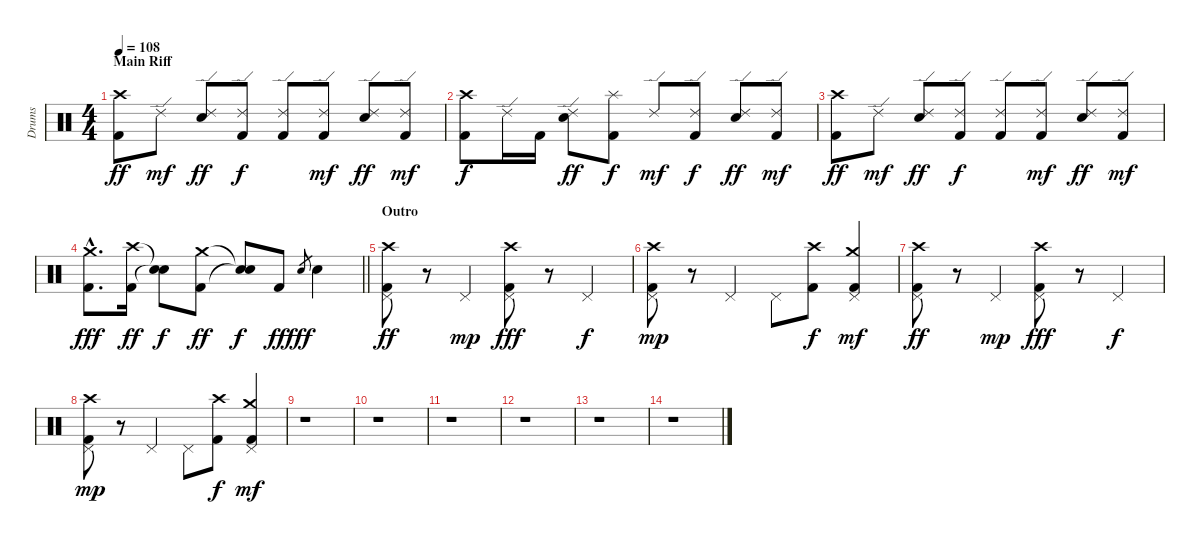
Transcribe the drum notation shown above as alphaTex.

\track ("Drums" "Drums") {instrument percussion}
\staff {score}
\articulation defaults
\ts (4 4)
\section ("" "Main Riff")
\tempo 108
\clef neutral
\ks c
("Crash high (hit)" "Kick (hit) 2").8{dy ff} "Ride (edge) 2".8{dy mf} ("Ride (edge) 2" "Electric Snare (hit)").8{dy ff} ("Ride (edge) 2" "Kick (hit) 2").8{dy f} ("Ride (edge) 2" "Kick (hit) 2").8 ("Ride (edge) 2" "Kick (hit) 2").8{dy mf} ("Ride (edge) 2" "Electric Snare (hit)").8{dy ff} ("Ride (edge) 2" "Kick (hit) 2").8{dy mf} |
("Crash high (hit)" "Kick (hit) 2").8{dy f} "Ride (edge) 2".16 "Kick (hit) 2".16 ("Ride (edge) 2" "Electric Snare (hit)").8{dy ff} ("Splash (hit)" "Kick (hit) 2").8{dy f} "Ride (edge) 2".8{dy mf} ("Ride (edge) 2" "Kick (hit) 2").8{dy f} ("Ride (edge) 2" "Electric Snare (hit)").8{dy ff} ("Ride (edge) 2" "Kick (hit) 2").8{dy mf} |
("Crash high (hit)" "Kick (hit) 2").8{dy ff} "Ride (edge) 2".8{dy mf} ("Ride (edge) 2" "Electric Snare (hit)").8{dy ff} ("Ride (edge) 2" "Kick (hit) 2").8{dy f} ("Ride (edge) 2" "Kick (hit) 2").8 ("Ride (edge) 2" "Kick (hit) 2").8{dy mf} ("Ride (edge) 2" "Electric Snare (hit)").8{dy ff} ("Ride (edge) 2" "Kick (hit) 2").8{dy mf} |
\barLineRight lightlight
("Crash medium (hit)"{hac} "Kick (hit) 2"{hac}).8{d dy fff} ("Crash high (hit)" "Kick (hit) 2").16{dy ff} ("Snare (hit)"{t} "Snare (hit)"{t}).8{dy f} ("Crash medium (hit)" "Kick (hit) 2").8{dy ff} ("Snare (hit)"{t} "Snare (hit)"{t}).8{dy f} "Kick (hit) 2".8{dy ff} "Electric Snare (hit)".8{gr dy fff} "Electric Snare (hit)".4 |
\section ("" "Outro")
("Crash high (hit)" "Pedal Hi-Hat (hit)" "Kick (hit) 2").8{dy ff} r.8{volume 0} "Pedal Hi-Hat (hit)".4{dy mp volume 15} ("Crash high (hit)" "Pedal Hi-Hat (hit)" "Kick (hit) 2").8{dy fff volume 15} r.8{volume 0} "Pedal Hi-Hat (hit)".4{dy f volume 15} |
("Crash high (hit)" "Pedal Hi-Hat (hit)" "Kick (hit) 2").8{dy mp volume 15} r.8 "Pedal Hi-Hat (hit)".4{volume 15} "Pedal Hi-Hat (hit)".8 ("Crash high (hit)" "Kick (hit) 2").8{dy f volume 15} ("Crash medium (hit)" "Pedal Hi-Hat (hit)" "Kick (hit) 2").4{dy mf} |
("Crash high (hit)" "Pedal Hi-Hat (hit)" "Kick (hit) 2").8{dy ff} r.8{volume 0} "Pedal Hi-Hat (hit)".4{dy mp volume 15} ("Crash high (hit)" "Pedal Hi-Hat (hit)" "Kick (hit) 2").8{dy fff volume 15} r.8{volume 0} "Pedal Hi-Hat (hit)".4{dy f volume 15} |
("Crash high (hit)" "Pedal Hi-Hat (hit)" "Kick (hit) 2").8{dy mp volume 15} r.8 "Pedal Hi-Hat (hit)".4{volume 15} "Pedal Hi-Hat (hit)".8 ("Crash high (hit)" "Kick (hit) 2").8{dy f volume 15} ("Crash medium (hit)" "Pedal Hi-Hat (hit)" "Kick (hit) 2").4{dy mf} |
r.1 |
r.1 |
r.1 |
r.1 |
r.1 |
r.1
